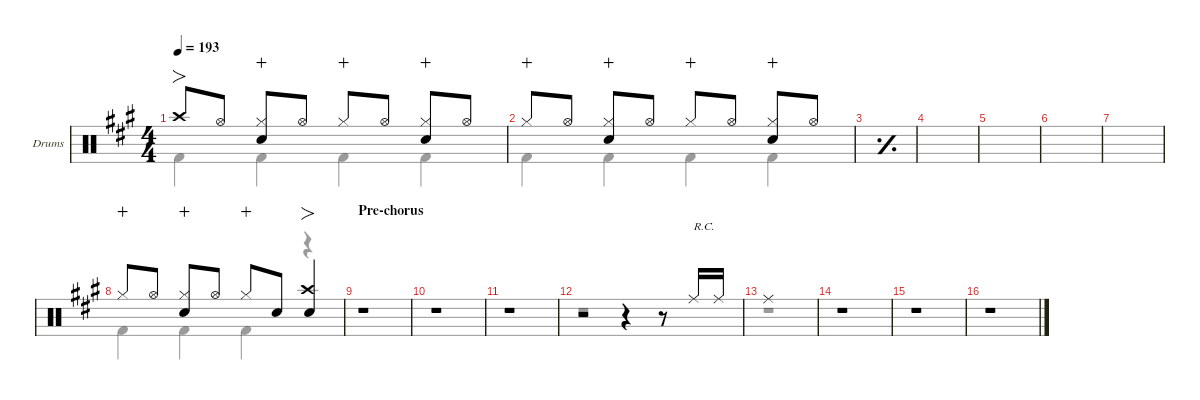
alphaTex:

\defaultSystemsLayout 4
\hideDynamics
\bracketExtendMode nobrackets
\firstSystemTrackNameOrientation horizontal
\track ("Drums" "Drums") {defaultSystemsLayout 4 instrument percussion}
\staff {score}
\articulation defaults
\voice
\ts (4 4)
\tempo 193
\clef neutral
\scale
0.266618
\ks a "Crash high (hit)"{acc forcenatural}.8{fo dy f beam Up} "Hi-Hat (open)"{acc forcenatural}.8{beam Up}
("Hi-Hat (closed)"{acc forcenatural} "Snare (hit) 2"{acc forcenatural}).8{wahc beam Up} "Hi-Hat (open)"{acc forcenatural}.8{beam Up} "Hi-Hat (closed)"{acc forcenatural}.8{dy mp wahc beam Up} "Hi-Hat (open)"{acc forcenatural}.8{dy f beam Up} ("Hi-Hat (closed)"{acc forcenatural} "Snare (hit) 2"{acc forcenatural}).8{wahc beam Up} "Hi-Hat (open)"{acc forcenatural}.8{beam Up} |
\scale
0.244461 "Hi-Hat (closed)"{acc forcenatural}.8{dy mp wahc beam Up} "Hi-Hat (open)"{acc forcenatural}.8{dy f beam Up} ("Hi-Hat (closed)"{acc forcenatural} "Snare (hit) 2"{acc forcenatural}).8{wahc beam Up} "Hi-Hat (open)"{acc forcenatural}.8{beam Up} "Hi-Hat (closed)"{acc forcenatural}.8{dy mp wahc beam Up} "Hi-Hat (open)"{acc forcenatural}.8{dy f beam Up} ("Hi-Hat (closed)"{acc forcenatural} "Snare (hit) 2"{acc forcenatural}).8{wahc beam Up} "Hi-Hat (open)"{acc forcenatural}.8{beam Up} |
\simile simple
\scale
0.244461 |
\scale
0.244461 |
\scale
0.265513 |
\scale
0.243355 |
\scale
0.243355 |
\simile none
\scale
0.247776 "Hi-Hat (closed)"{acc forcenatural}.8{dy mp wahc beam Up} "Hi-Hat (open)"{acc forcenatural}.8{dy f beam Up} ("Hi-Hat (closed)"{acc forcenatural} "Snare (hit) 2"{acc forcenatural}).8{wahc beam Up} "Hi-Hat (open)"{acc forcenatural}.8{beam Up} "Hi-Hat (closed)"{acc forcenatural}.8{dy mp wahc beam Up} "Snare (hit) 2"{acc forcenatural}.8{dy f beam Up} ("Snare (hit) 2"{acc forcenatural} "Crash high (hit)"{acc forcenatural}).4{fo beam Up} |
\section ("" "Pre-chorus")
\scale
0.266618 r.1{beam Up} |
\scale
0.244461 r.1{beam Up} |
\scale
0.244461 r.1{beam Up} |
\scale
0.244461 r.2{beam Up} r.4{beam Up} r.8{beam Up} "Ride (middle)"{acc forcenatural}.16{txt "R.C." dy mf beam Up} "Ride (middle)"{acc forcenatural}.16{beam Up} |
\scale
0.266618 "Ride (middle)"{acc forcenatural}.1{dy f beam Up} |
\scale
0.244461 r.1{beam Up} |
\scale
0.244461 r.1{beam Up} |
\scale
0.244461 r.1{beam Up}
\voice
\clef neutral
\ottava regular
\simile none
\scale
0.266618
\ks a "Kick (hit) 2"{acc forcenatural}.4{dy f beam Down} "Kick (hit) 2"{acc forcenatural}.4{beam Down} "Kick (hit) 2"{acc forcenatural}.4{beam Down} "Kick (hit) 2"{acc forcenatural}.4{beam Down}
|
\scale
0.244461 "Kick (hit) 2"{acc forcenatural}.4{beam Down} "Kick (hit) 2"{acc forcenatural}.4{beam Down} "Kick (hit) 2"{acc forcenatural}.4{beam Down} "Kick (hit) 2"{acc forcenatural}.4{beam Down} |
\simile simple
\scale
0.244461 |
\scale
0.244461 |
\scale
0.265513 |
\scale
0.243355 |
\scale
0.243355 |
\simile none
\scale
0.247776 "Kick (hit) 2"{acc forcenatural}.4{beam Down} "Kick (hit) 2"{acc forcenatural}.4{beam Down} "Kick (hit) 2"{acc forcenatural}.4{beam Down} r.4{beam Down} |
\scale
0.266618 r.1{beam Down} |
\scale
0.244461 r.1{beam Down} |
\scale
0.244461 r.1{beam Down} |
\scale
0.244461 r.1{beam Down} |
\scale
0.266618 r.1{beam Down} |
\scale
0.244461 r.1{beam Down} |
\scale
0.244461 r.1{beam Down} |
\scale
0.244461 r.1{beam Down}
